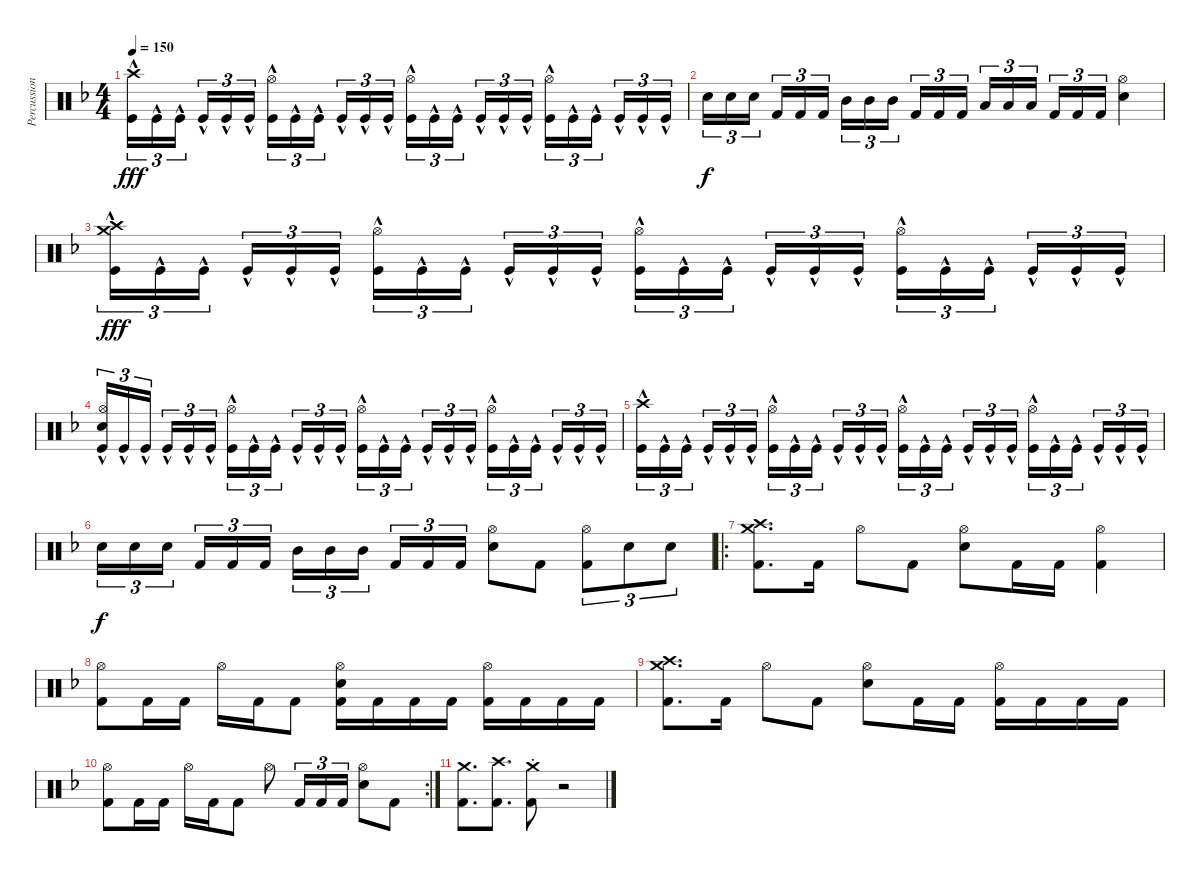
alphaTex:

\track ("Percussion" "Percussion") {instrument percussion}
\staff {score}
\articulation defaults
\ts (4 4)
\tempo 150
\clef neutral
\ks dminor
("Crash high (hit)" "Kick (hit)"{hac}).16{tu (3 2) dy fff} "Kick (hit)"{hac}.16{tu (3 2)} "Kick (hit)"{hac}.16{tu (3 2) beam splitsecondary} "Kick (hit)"{hac}.16{tu (3 2)} "Kick (hit)"{hac}.16{tu (3 2)} "Kick (hit)"{hac}.16{tu (3 2)} ("Hi-Hat (open)" "Kick (hit)"{hac}).16{tu (3 2)} "Kick (hit)"{hac}.16{tu (3 2)} "Kick (hit)"{hac}.16{tu (3 2) beam splitsecondary} "Kick (hit)"{hac}.16{tu (3 2)} "Kick (hit)"{hac}.16{tu (3 2)} "Kick (hit)"{hac}.16{tu (3 2)} ("Hi-Hat (open)" "Kick (hit)"{hac}).16{tu (3 2)} "Kick (hit)"{hac}.16{tu (3 2)} "Kick (hit)"{hac}.16{tu (3 2) beam splitsecondary} "Kick (hit)"{hac}.16{tu (3 2)} "Kick (hit)"{hac}.16{tu (3 2)} "Kick (hit)"{hac}.16{tu (3 2)} ("Hi-Hat (open)" "Kick (hit)"{hac}).16{tu (3 2)} "Kick (hit)"{hac}.16{tu (3 2)} "Kick (hit)"{hac}.16{tu (3 2) beam splitsecondary} "Kick (hit)"{hac}.16{tu (3 2)} "Kick (hit)"{hac}.16{tu (3 2)} "Kick (hit)"{hac}.16{tu (3 2)} |
"Electric Snare (hit)".16{tu (3 2) dy f} "Electric Snare (hit)".16{tu (3 2)} "Electric Snare (hit)".16{tu (3 2) beam splitsecondary} "Kick (hit) 2".16{tu (3 2)} "Kick (hit) 2".16{tu (3 2)} "Kick (hit) 2".16{tu (3 2)} "Mid Tom (hit)".16{tu (3 2)} "Mid Tom (hit)".16{tu (3 2)} "Mid Tom (hit)".16{tu (3 2) beam splitsecondary} "Kick (hit) 2".16{tu (3 2)} "Kick (hit) 2".16{tu (3 2)} "Kick (hit) 2".16{tu (3 2)} "Low Tom (hit)".16{tu (3 2)} "Low Tom (hit)".16{tu (3 2)} "Low Tom (hit)".16{tu (3 2) beam splitsecondary} "Kick (hit) 2".16{tu (3 2)} "Kick (hit) 2".16{tu (3 2)} "Kick (hit) 2".16{tu (3 2)} ("Hi-Hat (open)" "Electric Snare (hit)").4 |
("Crash medium (hit)" "Crash high (hit)" "Kick (hit)"{hac}).16{tu (3 2) dy fff} "Kick (hit)"{hac}.16{tu (3 2)} "Kick (hit)"{hac}.16{tu (3 2) beam splitsecondary} "Kick (hit)"{hac}.16{tu (3 2)} "Kick (hit)"{hac}.16{tu (3 2)} "Kick (hit)"{hac}.16{tu (3 2)} ("Hi-Hat (open)" "Kick (hit)"{hac}).16{tu (3 2)} "Kick (hit)"{hac}.16{tu (3 2)} "Kick (hit)"{hac}.16{tu (3 2) beam splitsecondary} "Kick (hit)"{hac}.16{tu (3 2)} "Kick (hit)"{hac}.16{tu (3 2)} "Kick (hit)"{hac}.16{tu (3 2)} ("Hi-Hat (open)" "Kick (hit)"{hac}).16{tu (3 2)} "Kick (hit)"{hac}.16{tu (3 2)} "Kick (hit)"{hac}.16{tu (3 2) beam splitsecondary} "Kick (hit)"{hac}.16{tu (3 2)} "Kick (hit)"{hac}.16{tu (3 2)} "Kick (hit)"{hac}.16{tu (3 2)} ("Hi-Hat (open)" "Kick (hit)"{hac}).16{tu (3 2)} "Kick (hit)"{hac}.16{tu (3 2)} "Kick (hit)"{hac}.16{tu (3 2) beam splitsecondary} "Kick (hit)"{hac}.16{tu (3 2)} "Kick (hit)"{hac}.16{tu (3 2)} "Kick (hit)"{hac}.16{tu (3 2)} |
("Hi-Hat (open)" "Electric Snare (hit)" "Kick (hit)"{hac}).16{tu (3 2)} "Kick (hit)"{hac}.16{tu (3 2)} "Kick (hit)"{hac}.16{tu (3 2) beam splitsecondary} "Kick (hit)"{hac}.16{tu (3 2)} "Kick (hit)"{hac}.16{tu (3 2)} "Kick (hit)"{hac}.16{tu (3 2)} ("Hi-Hat (open)" "Kick (hit)"{hac}).16{tu (3 2)} "Kick (hit)"{hac}.16{tu (3 2)} "Kick (hit)"{hac}.16{tu (3 2) beam splitsecondary} "Kick (hit)"{hac}.16{tu (3 2)} "Kick (hit)"{hac}.16{tu (3 2)} "Kick (hit)"{hac}.16{tu (3 2)} ("Hi-Hat (open)" "Kick (hit)"{hac}).16{tu (3 2)} "Kick (hit)"{hac}.16{tu (3 2)} "Kick (hit)"{hac}.16{tu (3 2) beam splitsecondary} "Kick (hit)"{hac}.16{tu (3 2)} "Kick (hit)"{hac}.16{tu (3 2)} "Kick (hit)"{hac}.16{tu (3 2)} ("Hi-Hat (open)" "Kick (hit)"{hac}).16{tu (3 2)} "Kick (hit)"{hac}.16{tu (3 2)} "Kick (hit)"{hac}.16{tu (3 2) beam splitsecondary} "Kick (hit)"{hac}.16{tu (3 2)} "Kick (hit)"{hac}.16{tu (3 2)} "Kick (hit)"{hac}.16{tu (3 2)} |
("Crash high (hit)" "Kick (hit)"{hac}).16{tu (3 2)} "Kick (hit)"{hac}.16{tu (3 2)} "Kick (hit)"{hac}.16{tu (3 2) beam splitsecondary} "Kick (hit)"{hac}.16{tu (3 2)} "Kick (hit)"{hac}.16{tu (3 2)} "Kick (hit)"{hac}.16{tu (3 2)} ("Hi-Hat (open)" "Kick (hit)"{hac}).16{tu (3 2)} "Kick (hit)"{hac}.16{tu (3 2)} "Kick (hit)"{hac}.16{tu (3 2) beam splitsecondary} "Kick (hit)"{hac}.16{tu (3 2)} "Kick (hit)"{hac}.16{tu (3 2)} "Kick (hit)"{hac}.16{tu (3 2)} ("Hi-Hat (open)" "Kick (hit)"{hac}).16{tu (3 2)} "Kick (hit)"{hac}.16{tu (3 2)} "Kick (hit)"{hac}.16{tu (3 2) beam splitsecondary} "Kick (hit)"{hac}.16{tu (3 2)} "Kick (hit)"{hac}.16{tu (3 2)} "Kick (hit)"{hac}.16{tu (3 2)} ("Hi-Hat (open)" "Kick (hit)"{hac}).16{tu (3 2)} "Kick (hit)"{hac}.16{tu (3 2)} "Kick (hit)"{hac}.16{tu (3 2) beam splitsecondary} "Kick (hit)"{hac}.16{tu (3 2)} "Kick (hit)"{hac}.16{tu (3 2)} "Kick (hit)"{hac}.16{tu (3 2)} |
"Electric Snare (hit)".16{tu (3 2) dy f} "Electric Snare (hit)".16{tu (3 2)} "Electric Snare (hit)".16{tu (3 2) beam splitsecondary} "Kick (hit) 2".16{tu (3 2)} "Kick (hit) 2".16{tu (3 2)} "Kick (hit) 2".16{tu (3 2)} "Mid Tom (hit)".16{tu (3 2)} "Mid Tom (hit)".16{tu (3 2)} "Mid Tom (hit)".16{tu (3 2) beam splitsecondary} "Kick (hit) 2".16{tu (3 2)} "Kick (hit) 2".16{tu (3 2)} "Kick (hit) 2".16{tu (3 2)} ("Hi-Hat (open)" "Electric Snare (hit)").8 "Kick (hit) 2".8 ("Hi-Hat (open)" "Kick (hit) 2").8{tu (3 2)} "Electric Snare (hit)".8{tu (3 2)} "Electric Snare (hit)".8{tu (3 2)} |
\ro
("Crash medium (hit)" "Crash high (hit)" "Kick (hit) 2").8{d} "Kick (hit) 2".16 "Hi-Hat (open)".8 "Kick (hit) 2".8 ("Hi-Hat (open)" "Electric Snare (hit)").8 "Kick (hit) 2".16 "Kick (hit) 2".16 ("Hi-Hat (open)" "Kick (hit) 2").4 |
("Hi-Hat (open)" "Kick (hit) 2").8 "Kick (hit) 2".16 "Kick (hit) 2".16 "Hi-Hat (open)".16 "Kick (hit) 2".16 "Kick (hit) 2".8 ("Hi-Hat (open)" "Electric Snare (hit)" "Kick (hit) 2").16 "Kick (hit) 2".16 "Kick (hit) 2".16 "Kick (hit) 2".16 ("Hi-Hat (open)" "Kick (hit) 2").16 "Kick (hit) 2".16 "Kick (hit) 2".16 "Kick (hit) 2".16 |
("Crash medium (hit)" "Crash high (hit)" "Kick (hit) 2").8{d} "Kick (hit) 2".16 "Hi-Hat (open)".8 "Kick (hit) 2".8 ("Hi-Hat (open)" "Electric Snare (hit)").8 "Kick (hit) 2".16 "Kick (hit) 2".16 ("Hi-Hat (open)" "Kick (hit) 2").16 "Kick (hit) 2".16 "Kick (hit) 2".16 "Kick (hit) 2".16 |
\rc 2
("Hi-Hat (open)" "Kick (hit) 2").8 "Kick (hit) 2".16 "Kick (hit) 2".16 "Hi-Hat (open)".16 "Kick (hit) 2".16 "Kick (hit) 2".8 "Hi-Hat (open)".8 "Kick (hit) 2".16{tu (3 2)} "Kick (hit) 2".16{tu (3 2)} "Kick (hit) 2".16{tu (3 2)} ("Hi-Hat (open)" "Electric Snare (hit)").8 "Kick (hit) 2".8 |
("Crash medium (hit)" "Kick (hit) 2").8{d} ("Crash high (hit)" "Kick (hit) 2").8{d} ("Crash medium (hit)"{st} "Kick (hit) 2").8 r.2{volume 0}
